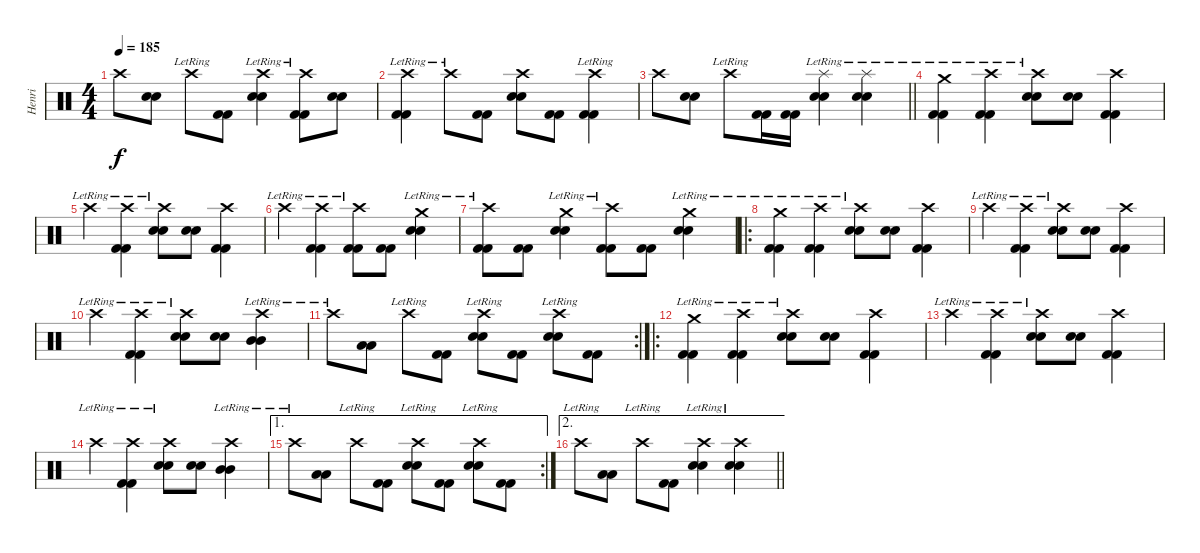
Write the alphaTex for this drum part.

\track ("Henri" "Henri") {instrument percussion}
\staff {score}
\articulation defaults
\ts (4 4)
\tempo 185
\clef neutral
\ks c "Crash high (hit)".8{dy f}
("Snare (hit) 2" "Snare (hit) 2").8 "Crash high (hit)"{lr}.8 ("Kick (hit) 2" "Kick (hit) 2").8 ("Crash high (hit)"{lr} "Snare (hit) 2" "Snare (hit) 2").4 ("Crash high (hit)"{lr} "Kick (hit) 2" "Kick (hit) 2").8 ("Snare (hit) 2" "Snare (hit) 2").8 |
("Crash high (hit)"{lr} "Kick (hit) 2" "Kick (hit) 2").4 "Crash high (hit)"{lr}.8 ("Kick (hit) 2" "Kick (hit) 2").8 ("Crash high (hit)" "Snare (hit) 2" "Snare (hit) 2").8 ("Kick (hit) 2" "Kick (hit) 2").8 ("Crash high (hit)"{lr} "Kick (hit) 2" "Kick (hit) 2").4 |
\barLineRight lightlight "Crash high (hit)".8
("Snare (hit) 2" "Snare (hit) 2").8 "Crash high (hit)"{lr}.8 ("Kick (hit) 2" "Kick (hit) 2").16 ("Kick (hit) 2" "Kick (hit) 2").16 ("Splash (hit)"{lr} "Snare (hit) 2" "Snare (hit) 2").4 ("Splash (hit)"{lr} "Snare (hit) 2" "Snare (hit) 2").4 |
("Crash medium (hit)"{lr} "Kick (hit) 2" "Kick (hit) 2").4 ("Crash high (hit)"{lr} "Kick (hit) 2" "Kick (hit) 2").4 ("Crash high (hit)"{lr} "Snare (hit) 2" "Snare (hit) 2").8 ("Snare (hit) 2" "Snare (hit) 2").8 ("Crash high (hit)" "Kick (hit) 2" "Kick (hit) 2").4 |
"Crash high (hit)"{lr}.4 ("Crash high (hit)"{lr} "Kick (hit) 2" "Kick (hit) 2").4 ("Crash high (hit)"{lr} "Snare (hit) 2" "Snare (hit) 2").8 ("Snare (hit) 2" "Snare (hit) 2").8 ("Crash high (hit)" "Kick (hit) 2" "Kick (hit) 2").4 |
"Crash high (hit)"{lr}.4 ("Crash high (hit)"{lr} "Kick (hit) 2" "Kick (hit) 2").4 ("Crash high (hit)"{lr} "Kick (hit) 2" "Kick (hit) 2").8 ("Kick (hit) 2" "Kick (hit) 2").8 ("Crash medium (hit)"{lr} "Snare (hit) 2" "Snare (hit) 2").4 |
("Crash high (hit)"{lr} "Kick (hit) 2" "Kick (hit) 2").8 ("Kick (hit) 2" "Kick (hit) 2").8 ("Crash medium (hit)"{lr} "Snare (hit) 2" "Snare (hit) 2").4 ("Crash high (hit)"{lr} "Kick (hit) 2" "Kick (hit) 2").8 ("Kick (hit) 2" "Kick (hit) 2").8 ("Crash medium (hit)"{lr} "Snare (hit) 2" "Snare (hit) 2").4 |
\ro
("Crash medium (hit)"{lr} "Kick (hit) 2" "Kick (hit) 2").4 ("Crash high (hit)"{lr} "Kick (hit) 2" "Kick (hit) 2").4 ("Crash high (hit)"{lr} "Snare (hit) 2" "Snare (hit) 2").8 ("Snare (hit) 2" "Snare (hit) 2").8 ("Crash high (hit)" "Kick (hit) 2" "Kick (hit) 2").4 |
"Crash high (hit)"{lr}.4 ("Crash high (hit)"{lr} "Kick (hit) 2" "Kick (hit) 2").4 ("Crash high (hit)"{lr} "Snare (hit) 2" "Snare (hit) 2").8 ("Snare (hit) 2" "Snare (hit) 2").8 ("Crash high (hit)" "Kick (hit) 2" "Kick (hit) 2").4 |
"Crash high (hit)"{lr}.4 ("Crash high (hit)"{lr} "Kick (hit) 2" "Kick (hit) 2").4 ("Crash high (hit)"{lr} "Snare (hit) 2" "Snare (hit) 2").8 ("Snare (hit) 2" "Snare (hit) 2").8 ("Crash high (hit)"{lr} "Mid Tom (hit)" "Mid Tom (hit)").4 |
\rc 2 "Crash high (hit)"{lr}.8
("Low Tom (hit)" "Low Tom (hit)").8 "Crash high (hit)"{lr}.8 ("Kick (hit) 2" "Kick (hit) 2").8 ("Crash high (hit)"{lr} "Snare (hit) 2" "Snare (hit) 2").8 ("Kick (hit) 2" "Kick (hit) 2").8 ("Crash high (hit)"{lr} "Snare (hit) 2" "Snare (hit) 2").8 ("Kick (hit) 2" "Kick (hit) 2").8 |
\ro
("Crash medium (hit)"{lr} "Kick (hit) 2" "Kick (hit) 2").4 ("Crash high (hit)"{lr} "Kick (hit) 2" "Kick (hit) 2").4 ("Crash high (hit)"{lr} "Snare (hit) 2" "Snare (hit) 2").8 ("Snare (hit) 2" "Snare (hit) 2").8 ("Crash high (hit)" "Kick (hit) 2" "Kick (hit) 2").4 |
"Crash high (hit)"{lr}.4 ("Crash high (hit)"{lr} "Kick (hit) 2" "Kick (hit) 2").4 ("Crash high (hit)"{lr} "Snare (hit) 2" "Snare (hit) 2").8 ("Snare (hit) 2" "Snare (hit) 2").8 ("Crash high (hit)" "Kick (hit) 2" "Kick (hit) 2").4 |
"Crash high (hit)"{lr}.4 ("Crash high (hit)"{lr} "Kick (hit) 2" "Kick (hit) 2").4 ("Crash high (hit)"{lr} "Snare (hit) 2" "Snare (hit) 2").8 ("Snare (hit) 2" "Snare (hit) 2").8 ("Crash high (hit)"{lr} "Mid Tom (hit)" "Mid Tom (hit)").4 |
\ae 1
\rc 2 "Crash high (hit)"{lr}.8
("Low Tom (hit)" "Low Tom (hit)").8 "Crash high (hit)"{lr}.8 ("Kick (hit) 2" "Kick (hit) 2").8 ("Crash high (hit)"{lr} "Snare (hit) 2" "Snare (hit) 2").8 ("Kick (hit) 2" "Kick (hit) 2").8 ("Crash high (hit)"{lr} "Snare (hit) 2" "Snare (hit) 2").8 ("Kick (hit) 2" "Kick (hit) 2").8 |
\ae 2
\barLineRight lightlight "Crash high (hit)"{lr}.8
("Low Tom (hit)" "Low Tom (hit)").8 "Crash high (hit)"{lr}.8 ("Kick (hit) 2" "Kick (hit) 2").8 ("Crash high (hit)"{lr} "Snare (hit) 2" "Snare (hit) 2").4 ("Crash high (hit)"{lr} "Snare (hit) 2" "Snare (hit) 2").4
